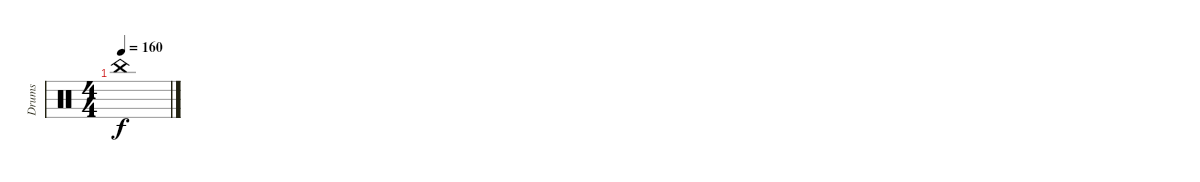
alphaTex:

\track ("Drums" "Drums") {instrument percussion}
\staff {score}
\articulation defaults
\ts (4 4)
\tempo 160
\clef neutral
\ks c "China (hit)".1{dy f}
